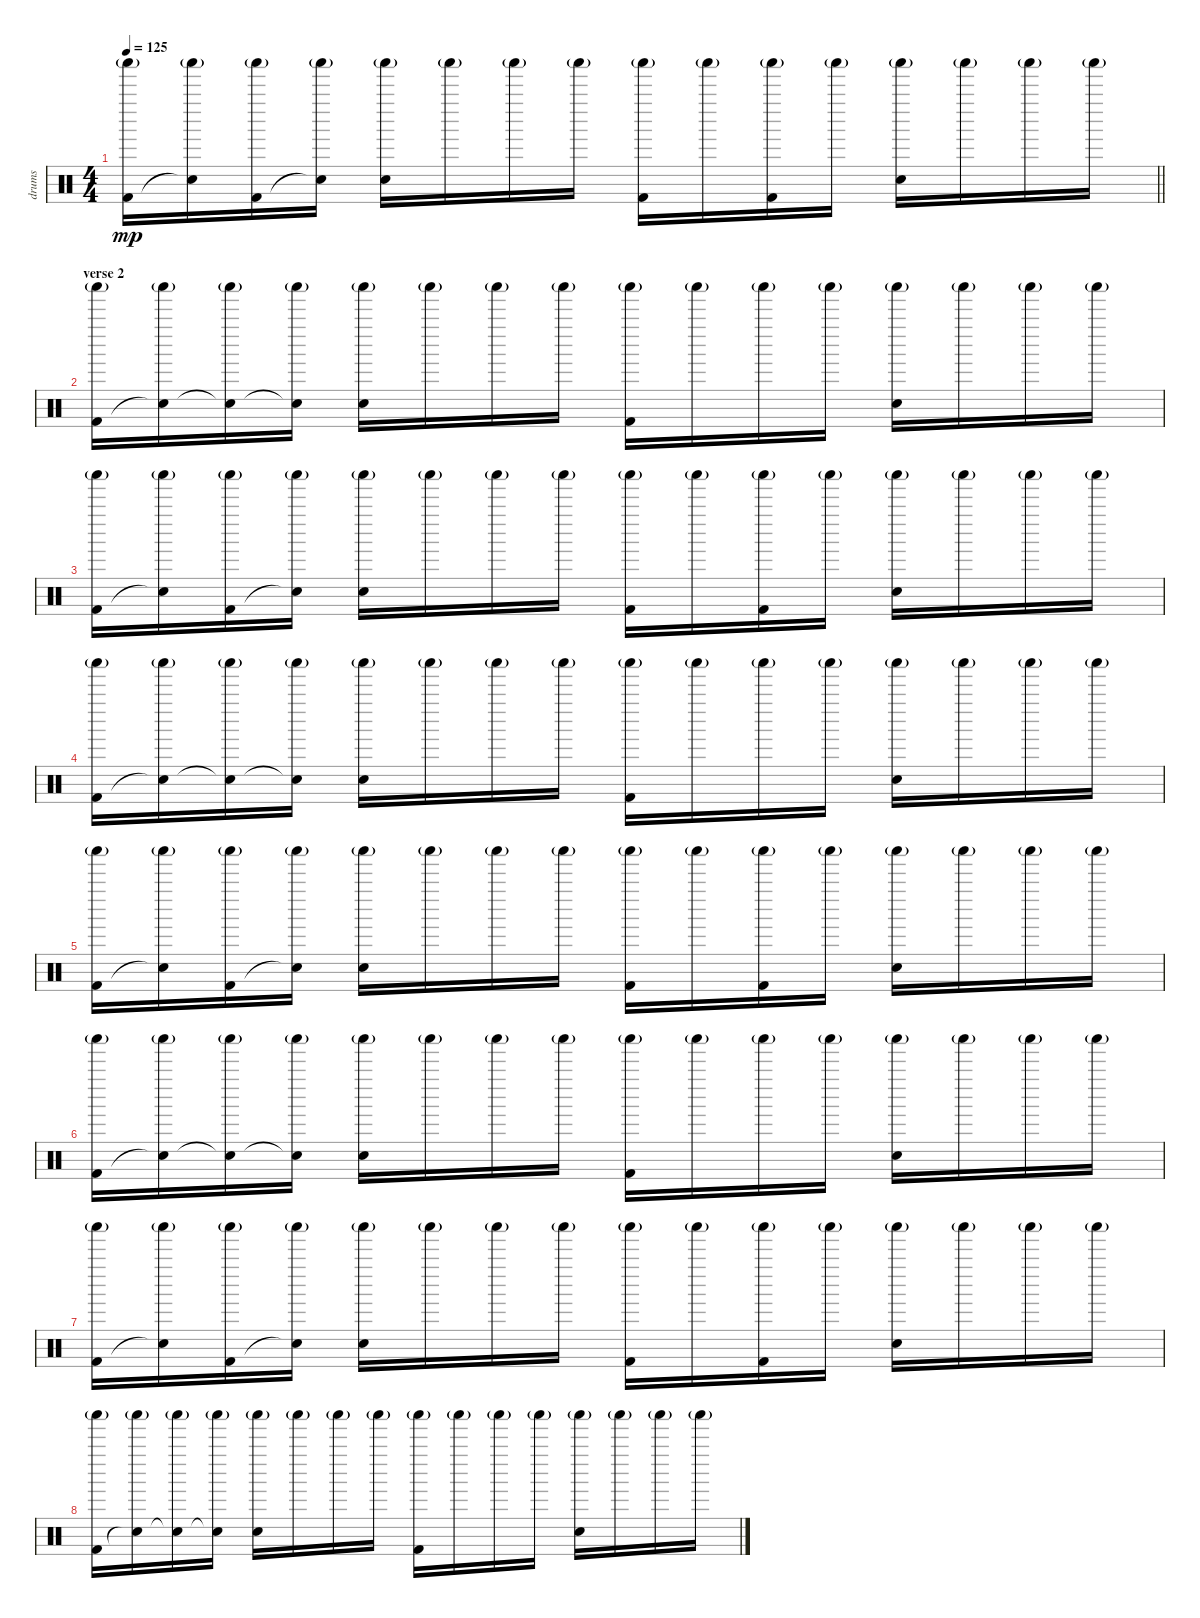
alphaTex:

\track ("drums" "drums") {instrument percussion}
\staff {score}
\articulation defaults
\ts (4 4)
\tempo 125
\clef neutral
\barLineRight lightlight
\ks c
("Shaker (hit)"{g} "Kick (hit) 2").16{dy mp} ("Shaker (hit)"{g} "Snare (hit)"{t}).16 ("Shaker (hit)"{g} "Kick (hit) 2").16 ("Shaker (hit)"{g} "Snare (hit)"{t}).16 ("Shaker (hit)"{g} "Snare (hit) 2").16 "Shaker (hit)"{g}.16 "Shaker (hit)"{g}.16 "Shaker (hit)"{g}.16 ("Shaker (hit)"{g} "Kick (hit) 2").16 "Shaker (hit)"{g}.16 ("Shaker (hit)"{g} "Kick (hit) 2").16 "Shaker (hit)"{g}.16 ("Shaker (hit)"{g} "Snare (hit) 2").16 "Shaker (hit)"{g}.16 "Shaker (hit)"{g}.16 "Shaker (hit)"{g}.16 |
\section ("" "verse 2")
("Shaker (hit)"{g} "Kick (hit) 2").16 ("Shaker (hit)"{g} "Snare (hit)"{t}).16 ("Shaker (hit)"{g} "Snare (hit)"{t}).16 ("Shaker (hit)"{g} "Snare (hit)"{t}).16 ("Shaker (hit)"{g} "Snare (hit) 2").16 "Shaker (hit)"{g}.16 "Shaker (hit)"{g}.16 "Shaker (hit)"{g}.16 ("Shaker (hit)"{g} "Kick (hit) 2").16 "Shaker (hit)"{g}.16 "Shaker (hit)"{g}.16 "Shaker (hit)"{g}.16 ("Shaker (hit)"{g} "Snare (hit) 2").16 "Shaker (hit)"{g}.16 "Shaker (hit)"{g}.16 "Shaker (hit)"{g}.16 |
("Shaker (hit)"{g} "Kick (hit) 2").16 ("Shaker (hit)"{g} "Snare (hit)"{t}).16 ("Shaker (hit)"{g} "Kick (hit) 2").16 ("Shaker (hit)"{g} "Snare (hit)"{t}).16 ("Shaker (hit)"{g} "Snare (hit) 2").16 "Shaker (hit)"{g}.16 "Shaker (hit)"{g}.16 "Shaker (hit)"{g}.16 ("Shaker (hit)"{g} "Kick (hit) 2").16 "Shaker (hit)"{g}.16 ("Shaker (hit)"{g} "Kick (hit) 2").16 "Shaker (hit)"{g}.16 ("Shaker (hit)"{g} "Snare (hit) 2").16 "Shaker (hit)"{g}.16 "Shaker (hit)"{g}.16 "Shaker (hit)"{g}.16 |
("Shaker (hit)"{g} "Kick (hit) 2").16 ("Shaker (hit)"{g} "Snare (hit)"{t}).16 ("Shaker (hit)"{g} "Snare (hit)"{t}).16 ("Shaker (hit)"{g} "Snare (hit)"{t}).16 ("Shaker (hit)"{g} "Snare (hit) 2").16 "Shaker (hit)"{g}.16 "Shaker (hit)"{g}.16 "Shaker (hit)"{g}.16 ("Shaker (hit)"{g} "Kick (hit) 2").16 "Shaker (hit)"{g}.16 "Shaker (hit)"{g}.16 "Shaker (hit)"{g}.16 ("Shaker (hit)"{g} "Snare (hit) 2").16 "Shaker (hit)"{g}.16 "Shaker (hit)"{g}.16 "Shaker (hit)"{g}.16 |
("Shaker (hit)"{g} "Kick (hit) 2").16 ("Shaker (hit)"{g} "Snare (hit)"{t}).16 ("Shaker (hit)"{g} "Kick (hit) 2").16 ("Shaker (hit)"{g} "Snare (hit)"{t}).16 ("Shaker (hit)"{g} "Snare (hit) 2").16 "Shaker (hit)"{g}.16 "Shaker (hit)"{g}.16 "Shaker (hit)"{g}.16 ("Shaker (hit)"{g} "Kick (hit) 2").16 "Shaker (hit)"{g}.16 ("Shaker (hit)"{g} "Kick (hit) 2").16 "Shaker (hit)"{g}.16 ("Shaker (hit)"{g} "Snare (hit) 2").16 "Shaker (hit)"{g}.16 "Shaker (hit)"{g}.16 "Shaker (hit)"{g}.16 |
("Shaker (hit)"{g} "Kick (hit) 2").16 ("Shaker (hit)"{g} "Snare (hit)"{t}).16 ("Shaker (hit)"{g} "Snare (hit)"{t}).16 ("Shaker (hit)"{g} "Snare (hit)"{t}).16 ("Shaker (hit)"{g} "Snare (hit) 2").16 "Shaker (hit)"{g}.16 "Shaker (hit)"{g}.16 "Shaker (hit)"{g}.16 ("Shaker (hit)"{g} "Kick (hit) 2").16 "Shaker (hit)"{g}.16 "Shaker (hit)"{g}.16 "Shaker (hit)"{g}.16 ("Shaker (hit)"{g} "Snare (hit) 2").16 "Shaker (hit)"{g}.16 "Shaker (hit)"{g}.16 "Shaker (hit)"{g}.16 |
("Shaker (hit)"{g} "Kick (hit) 2").16 ("Shaker (hit)"{g} "Snare (hit)"{t}).16 ("Shaker (hit)"{g} "Kick (hit) 2").16 ("Shaker (hit)"{g} "Snare (hit)"{t}).16 ("Shaker (hit)"{g} "Snare (hit) 2").16 "Shaker (hit)"{g}.16 "Shaker (hit)"{g}.16 "Shaker (hit)"{g}.16 ("Shaker (hit)"{g} "Kick (hit) 2").16 "Shaker (hit)"{g}.16 ("Shaker (hit)"{g} "Kick (hit) 2").16 "Shaker (hit)"{g}.16 ("Shaker (hit)"{g} "Snare (hit) 2").16 "Shaker (hit)"{g}.16 "Shaker (hit)"{g}.16 "Shaker (hit)"{g}.16 |
("Shaker (hit)"{g} "Kick (hit) 2").16 ("Shaker (hit)"{g} "Snare (hit)"{t}).16 ("Shaker (hit)"{g} "Snare (hit)"{t}).16 ("Shaker (hit)"{g} "Snare (hit)"{t}).16 ("Shaker (hit)"{g} "Snare (hit) 2").16 "Shaker (hit)"{g}.16 "Shaker (hit)"{g}.16 "Shaker (hit)"{g}.16 ("Shaker (hit)"{g} "Kick (hit) 2").16 "Shaker (hit)"{g}.16 "Shaker (hit)"{g}.16 "Shaker (hit)"{g}.16 ("Shaker (hit)"{g} "Snare (hit) 2").16 "Shaker (hit)"{g}.16 "Shaker (hit)"{g}.16 "Shaker (hit)"{g}.16
